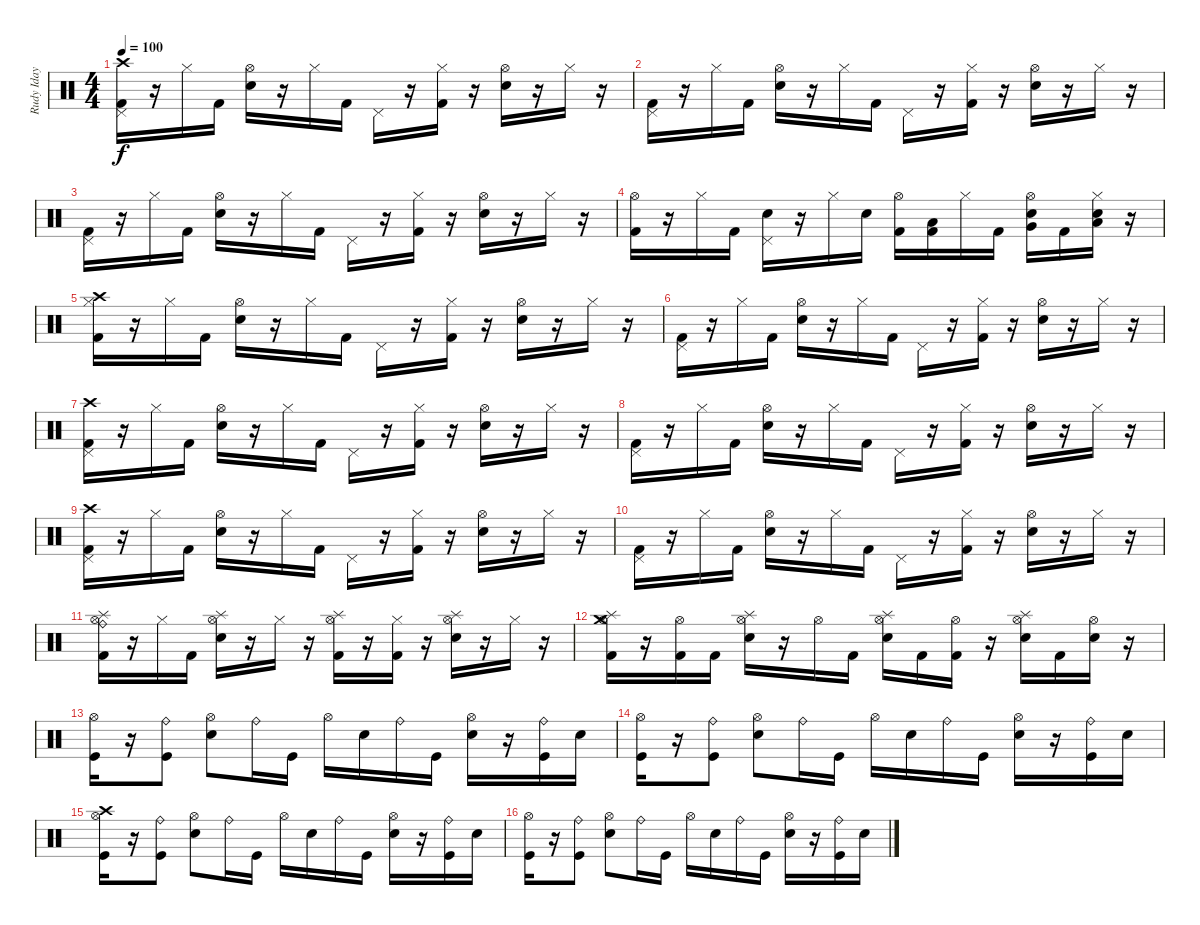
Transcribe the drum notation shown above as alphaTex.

\track ("Rudy Iday" "Rudy Iday") {instrument percussion}
\staff {score}
\articulation defaults
\ts (4 4)
\tempo 100
\clef neutral
\ks c
("Crash high (hit)" "Kick (hit) 2" "Pedal Hi-Hat (hit)").16{dy f} r.16 "Hi-Hat (closed)".16 "Kick (hit) 2".16 ("Electric Snare (hit)" "Hi-Hat (open)").16 r.16 "Hi-Hat (closed)".16 "Kick (hit) 2".16 "Pedal Hi-Hat (hit)".16 r.16 ("Hi-Hat (closed)" "Kick (hit) 2").16 r.16 ("Electric Snare (hit)" "Hi-Hat (open)").16 r.16 "Hi-Hat (closed)".16 r.16 |
("Pedal Hi-Hat (hit)" "Kick (hit) 2").16 r.16 "Hi-Hat (closed)".16 "Kick (hit) 2".16 ("Electric Snare (hit)" "Hi-Hat (open)").16 r.16 "Hi-Hat (closed)".16 "Kick (hit) 2".16 "Pedal Hi-Hat (hit)".16 r.16 ("Hi-Hat (closed)" "Kick (hit) 2").16 r.16 ("Electric Snare (hit)" "Hi-Hat (open)").16 r.16 "Hi-Hat (closed)".16 r.16 |
("Pedal Hi-Hat (hit)" "Kick (hit) 2").16 r.16 "Hi-Hat (closed)".16 "Kick (hit) 2".16 ("Electric Snare (hit)" "Hi-Hat (open)").16 r.16 "Hi-Hat (closed)".16 "Kick (hit) 2".16 "Pedal Hi-Hat (hit)".16 r.16 ("Hi-Hat (closed)" "Kick (hit) 2").16 r.16 ("Electric Snare (hit)" "Hi-Hat (open)").16 r.16 "Hi-Hat (closed)".16 r.16 |
("Hi-Hat (open)" "Kick (hit) 2").16 r.16 "Hi-Hat (closed)".16 "Kick (hit) 2".16 ("Electric Snare (hit)" "Pedal Hi-Hat (hit)").16 r.16 "Hi-Hat (closed)".16 "Electric Snare (hit)".16 ("Hi-Hat (open)" "Kick (hit) 2").16 ("Kick (hit) 2" "Low Tom (hit)").16 "Hi-Hat (closed)".16 "Kick (hit) 2".16 ("Electric Snare (hit)" "Hi-Hat (open)" "Very Low Tom (hit)").16 "Kick (hit) 2".16 ("Electric Snare (hit)" "Hi-Hat (closed)" "Low Floor Tom (hit)").16 r.16 |
("Kick (hit) 2" "Hi-Hat (closed)" "Crash high (hit)").16 r.16 "Hi-Hat (closed)".16 "Kick (hit) 2".16 ("Electric Snare (hit)" "Hi-Hat (open)").16 r.16 "Hi-Hat (closed)".16 "Kick (hit) 2".16 "Pedal Hi-Hat (hit)".16 r.16 ("Hi-Hat (closed)" "Kick (hit) 2").16 r.16 ("Electric Snare (hit)" "Hi-Hat (open)").16 r.16 "Hi-Hat (closed)".16 r.16 |
("Pedal Hi-Hat (hit)" "Kick (hit) 2").16 r.16 "Hi-Hat (closed)".16 "Kick (hit) 2".16 ("Electric Snare (hit)" "Hi-Hat (open)").16 r.16 "Hi-Hat (closed)".16 "Kick (hit) 2".16 "Pedal Hi-Hat (hit)".16 r.16 ("Hi-Hat (closed)" "Kick (hit) 2").16 r.16 ("Electric Snare (hit)" "Hi-Hat (open)").16 r.16 "Hi-Hat (closed)".16 r.16 |
("Crash high (hit)" "Pedal Hi-Hat (hit)" "Kick (hit) 2").16 r.16 "Hi-Hat (closed)".16 "Kick (hit) 2".16 ("Electric Snare (hit)" "Hi-Hat (open)").16 r.16 "Hi-Hat (closed)".16 "Kick (hit) 2".16 "Pedal Hi-Hat (hit)".16 r.16 ("Hi-Hat (closed)" "Kick (hit) 2").16 r.16 ("Electric Snare (hit)" "Hi-Hat (open)").16 r.16 "Hi-Hat (closed)".16 r.16 |
("Pedal Hi-Hat (hit)" "Kick (hit) 2").16 r.16 "Hi-Hat (closed)".16 "Kick (hit) 2".16 ("Electric Snare (hit)" "Hi-Hat (open)").16 r.16 "Hi-Hat (closed)".16 "Kick (hit) 2".16 "Pedal Hi-Hat (hit)".16 r.16 ("Hi-Hat (closed)" "Kick (hit) 2").16 r.16 ("Electric Snare (hit)" "Hi-Hat (open)").16 r.16 "Hi-Hat (closed)".16 r.16 |
("Kick (hit) 2" "Pedal Hi-Hat (hit)" "Crash high (hit)").16 r.16 "Hi-Hat (closed)".16 "Kick (hit) 2".16 ("Electric Snare (hit)" "Hi-Hat (open)").16 r.16 "Hi-Hat (closed)".16 "Kick (hit) 2".16 "Pedal Hi-Hat (hit)".16 r.16 ("Hi-Hat (closed)" "Kick (hit) 2").16 r.16 ("Electric Snare (hit)" "Hi-Hat (open)").16 r.16 "Hi-Hat (closed)".16 r.16 |
("Kick (hit) 2" "Pedal Hi-Hat (hit)").16 r.16 "Hi-Hat (closed)".16 "Kick (hit) 2".16 ("Electric Snare (hit)" "Hi-Hat (open)").16 r.16 "Hi-Hat (closed)".16 "Kick (hit) 2".16 "Pedal Hi-Hat (hit)".16 r.16 ("Hi-Hat (closed)" "Kick (hit) 2").16 r.16 ("Electric Snare (hit)" "Hi-Hat (open)").16 r.16 "Hi-Hat (closed)".16 r.16 |
("Hi-Hat (open)" "Splash (hit)" "Ride (bell)" "Kick (hit) 2").16 r.16 "Hi-Hat (closed)".16 "Kick (hit) 2".16 ("Electric Snare (hit)" "Hi-Hat (open)" "Splash (hit)").16 r.16 "Hi-Hat (closed)".16 r.16 ("Splash (hit)" "Kick (hit) 2" "Hi-Hat (open)").16 r.16 ("Kick (hit) 2" "Hi-Hat (closed)").16 r.16 ("Electric Snare (hit)" "Splash (hit)" "Hi-Hat (open)").16 r.16 "Hi-Hat (closed)".16 r.16 |
("Crash medium (hit)" "Hi-Hat (open)" "Splash (hit)" "Kick (hit) 2").16 r.16 ("Hi-Hat (open)" "Kick (hit) 2").16 "Kick (hit) 2".16 ("Electric Snare (hit)" "Hi-Hat (open)" "Splash (hit)").16 r.16 "Hi-Hat (open)".16 "Kick (hit) 2".16 ("Electric Snare (hit)" "Splash (hit)" "Hi-Hat (open)").16 "Kick (hit) 2".16 ("Hi-Hat (open)" "Kick (hit) 2").16 r.16 ("Electric Snare (hit)" "Hi-Hat (open)" "Splash (hit)").16 "Kick (hit) 2".16 ("Electric Snare (hit)" "Hi-Hat (open)").16 r.16 |
("Kick (hit)" "Hi-Hat (open)").16 r.16 ("Ride (bell)" "Kick (hit)").8 ("Electric Snare (hit)" "Hi-Hat (open)").8 "Ride (bell)".16 "Kick (hit)".16 "Hi-Hat (open)".16 "Electric Snare (hit)".16 "Ride (bell)".16 "Kick (hit)".16 ("Electric Snare (hit)" "Hi-Hat (open)").16 r.16 ("Ride (bell)" "Kick (hit)").16 "Electric Snare (hit)".16 |
("Kick (hit)" "Hi-Hat (open)").16 r.16 ("Kick (hit)" "Ride (bell)").8 ("Electric Snare (hit)" "Hi-Hat (open)").8 "Ride (bell)".16 "Kick (hit)".16 "Hi-Hat (open)".16 "Electric Snare (hit)".16 "Ride (bell)".16 "Kick (hit)".16 ("Electric Snare (hit)" "Hi-Hat (open)").16 r.16 ("Ride (bell)" "Kick (hit)").16 "Electric Snare (hit)".16 |
("Hi-Hat (open)" "Crash high (hit)" "Kick (hit)").16 r.16 ("Ride (bell)" "Kick (hit)").8 ("Electric Snare (hit)" "Hi-Hat (open)").8 "Ride (bell)".16 "Kick (hit)".16 "Hi-Hat (open)".16 "Electric Snare (hit)".16 "Ride (bell)".16 "Kick (hit)".16 ("Electric Snare (hit)" "Hi-Hat (open)").16 r.16 ("Kick (hit)" "Ride (bell)").16 "Electric Snare (hit)".16 |
("Kick (hit)" "Hi-Hat (open)").16 r.16 ("Ride (bell)" "Kick (hit)").8 ("Electric Snare (hit)" "Hi-Hat (open)").8 "Ride (bell)".16 "Kick (hit)".16 "Hi-Hat (open)".16 "Electric Snare (hit)".16 "Ride (bell)".16 "Kick (hit)".16 ("Electric Snare (hit)" "Hi-Hat (open)").16 r.16 ("Ride (bell)" "Kick (hit)").16 "Electric Snare (hit)".16
